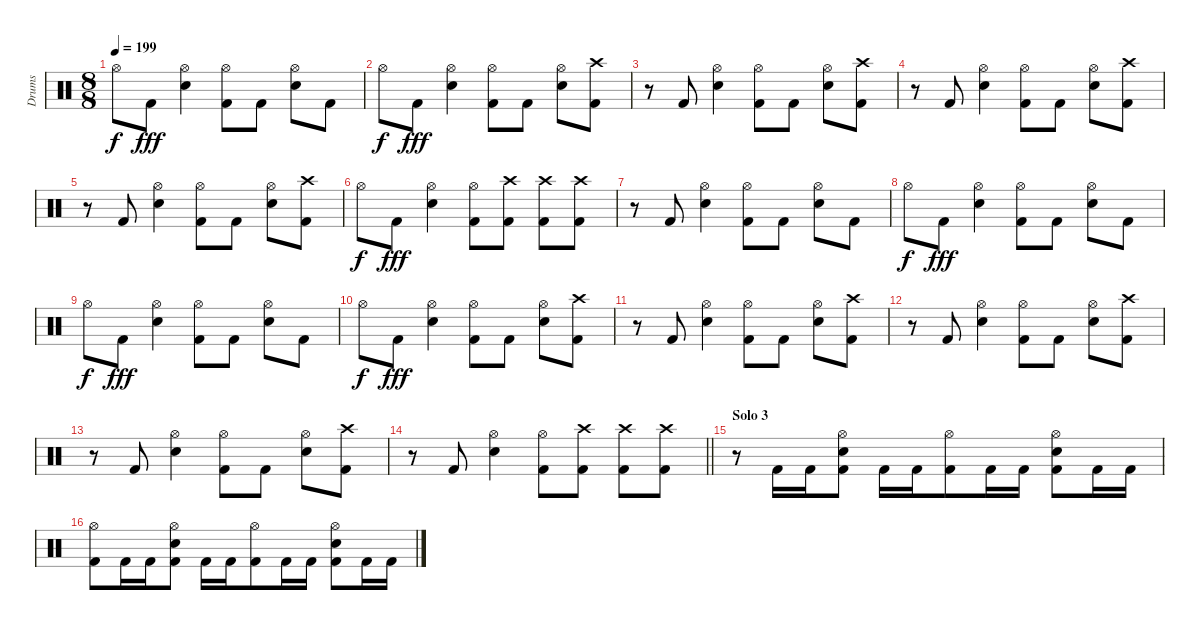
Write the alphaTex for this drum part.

\track ("Drums" "Drums") {instrument percussion}
\staff {score}
\articulation defaults
\ts (8 8)
\tempo 199
\clef neutral
\ks c "Hi-Hat (open)".8{dy f} "Kick (hit) 2".8{dy fff}
("Hi-Hat (open)" "Snare (hit) 2").4 ("Hi-Hat (open)" "Kick (hit) 2").8 "Kick (hit) 2".8 ("Hi-Hat (open)" "Snare (hit) 2").8 "Kick (hit) 2".8 |
"Hi-Hat (open)".8{dy f} "Kick (hit) 2".8{dy fff} ("Hi-Hat (open)" "Snare (hit) 2").4 ("Hi-Hat (open)" "Kick (hit) 2").8 "Kick (hit) 2".8 ("Hi-Hat (open)" "Snare (hit) 2").8 ("Crash high (hit)" "Kick (hit) 2").8 |
r.8 "Kick (hit) 2".8 ("Hi-Hat (open)" "Snare (hit) 2").4 ("Hi-Hat (open)" "Kick (hit) 2").8 "Kick (hit) 2".8 ("Hi-Hat (open)" "Snare (hit) 2").8 ("Crash high (hit)" "Kick (hit) 2").8 |
r.8 "Kick (hit) 2".8 ("Hi-Hat (open)" "Snare (hit) 2").4 ("Hi-Hat (open)" "Kick (hit) 2").8 "Kick (hit) 2".8 ("Hi-Hat (open)" "Snare (hit) 2").8 ("Crash high (hit)" "Kick (hit) 2").8 |
r.8 "Kick (hit) 2".8 ("Hi-Hat (open)" "Snare (hit) 2").4 ("Hi-Hat (open)" "Kick (hit) 2").8 "Kick (hit) 2".8 ("Hi-Hat (open)" "Snare (hit) 2").8 ("Crash high (hit)" "Kick (hit) 2").8 |
"Hi-Hat (open)".8{dy f} "Kick (hit) 2".8{dy fff} ("Hi-Hat (open)" "Snare (hit) 2").4 ("Hi-Hat (open)" "Kick (hit) 2").8 ("Crash high (hit)" "Kick (hit) 2").8 ("Crash high (hit)" "Kick (hit) 2").8 ("Crash high (hit)" "Kick (hit) 2").8 |
r.8 "Kick (hit) 2".8 ("Hi-Hat (open)" "Snare (hit) 2").4 ("Hi-Hat (open)" "Kick (hit) 2").8 "Kick (hit) 2".8 ("Hi-Hat (open)" "Snare (hit) 2").8 "Kick (hit) 2".8 |
"Hi-Hat (open)".8{dy f} "Kick (hit) 2".8{dy fff} ("Hi-Hat (open)" "Snare (hit) 2").4 ("Hi-Hat (open)" "Kick (hit) 2").8 "Kick (hit) 2".8 ("Hi-Hat (open)" "Snare (hit) 2").8 "Kick (hit) 2".8 |
"Hi-Hat (open)".8{dy f} "Kick (hit) 2".8{dy fff} ("Hi-Hat (open)" "Snare (hit) 2").4 ("Hi-Hat (open)" "Kick (hit) 2").8 "Kick (hit) 2".8 ("Hi-Hat (open)" "Snare (hit) 2").8 "Kick (hit) 2".8 |
"Hi-Hat (open)".8{dy f} "Kick (hit) 2".8{dy fff} ("Hi-Hat (open)" "Snare (hit) 2").4 ("Hi-Hat (open)" "Kick (hit) 2").8 "Kick (hit) 2".8 ("Hi-Hat (open)" "Snare (hit) 2").8 ("Crash high (hit)" "Kick (hit) 2").8 |
r.8 "Kick (hit) 2".8 ("Hi-Hat (open)" "Snare (hit) 2").4 ("Hi-Hat (open)" "Kick (hit) 2").8 "Kick (hit) 2".8 ("Hi-Hat (open)" "Snare (hit) 2").8 ("Crash high (hit)" "Kick (hit) 2").8 |
r.8 "Kick (hit) 2".8 ("Hi-Hat (open)" "Snare (hit) 2").4 ("Hi-Hat (open)" "Kick (hit) 2").8 "Kick (hit) 2".8 ("Hi-Hat (open)" "Snare (hit) 2").8 ("Crash high (hit)" "Kick (hit) 2").8 |
r.8 "Kick (hit) 2".8 ("Hi-Hat (open)" "Snare (hit) 2").4 ("Hi-Hat (open)" "Kick (hit) 2").8 "Kick (hit) 2".8 ("Hi-Hat (open)" "Snare (hit) 2").8 ("Crash high (hit)" "Kick (hit) 2").8 |
\barLineRight lightlight
r.8 "Kick (hit) 2".8 ("Hi-Hat (open)" "Snare (hit) 2").4 ("Hi-Hat (open)" "Kick (hit) 2").8 ("Crash high (hit)" "Kick (hit) 2").8 ("Crash high (hit)" "Kick (hit) 2").8 ("Crash high (hit)" "Kick (hit) 2").8 |
\section ("" "Solo 3")
r.8 "Kick (hit) 2".16 "Kick (hit) 2".16 ("Hi-Hat (open)" "Snare (hit) 2" "Kick (hit) 2").8 "Kick (hit) 2".16 "Kick (hit) 2".16 ("Hi-Hat (open)" "Kick (hit) 2").8 "Kick (hit) 2".16 "Kick (hit) 2".16 ("Hi-Hat (open)" "Snare (hit) 2" "Kick (hit) 2").8 "Kick (hit) 2".16 "Kick (hit) 2".16 |
("Hi-Hat (open)" "Kick (hit) 2").8 "Kick (hit) 2".16 "Kick (hit) 2".16 ("Hi-Hat (open)" "Snare (hit) 2" "Kick (hit) 2").8 "Kick (hit) 2".16 "Kick (hit) 2".16 ("Hi-Hat (open)" "Kick (hit) 2").8 "Kick (hit) 2".16 "Kick (hit) 2".16 ("Hi-Hat (open)" "Snare (hit) 2" "Kick (hit) 2").8 "Kick (hit) 2".16 "Kick (hit) 2".16
